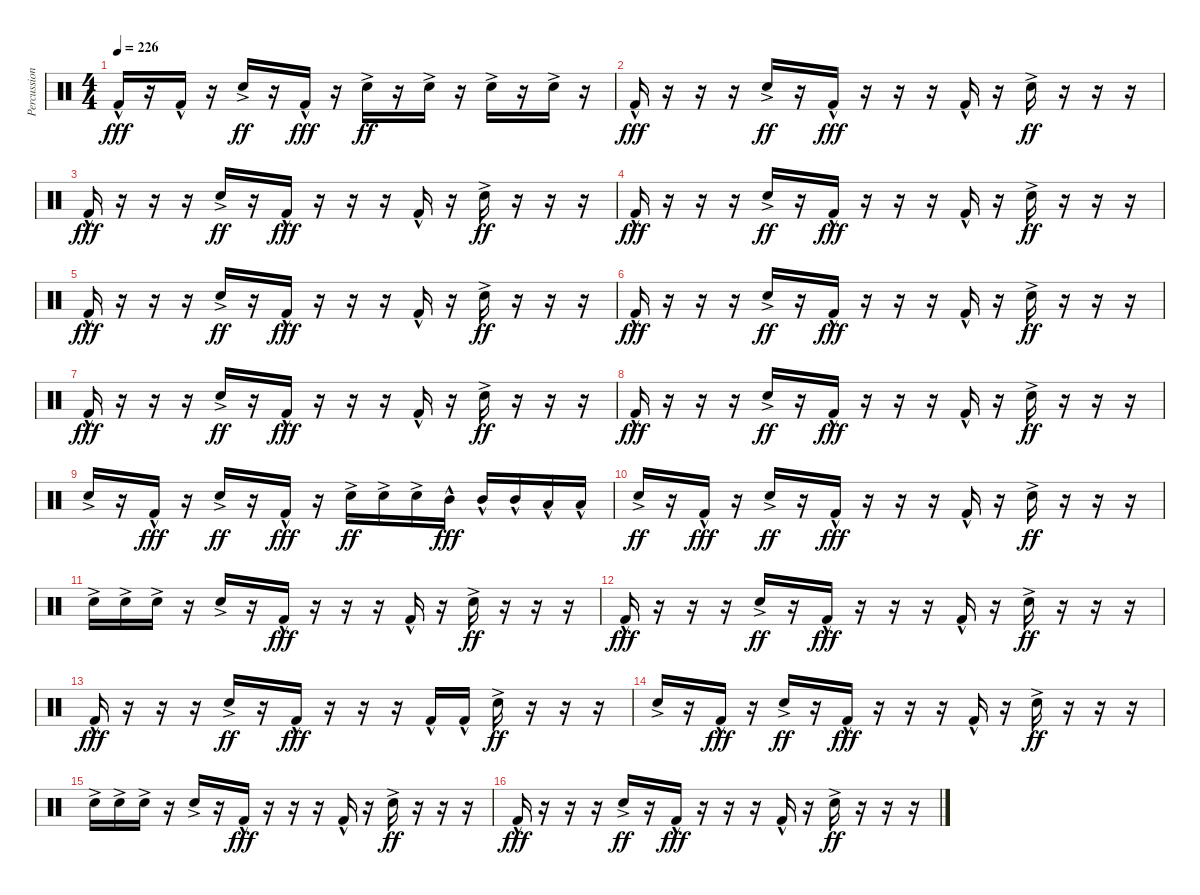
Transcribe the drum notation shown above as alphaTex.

\track ("Percussion" "Percussion") {instrument percussion bank 255}
\staff {score}
\articulation defaults
\ts (4 4)
\tempo 226
\clef neutral
\ks c "Kick (hit) 2"{hac}.16{dy fff}
r.16 "Kick (hit) 2"{hac}.16 r.16 "Snare (hit) 2"{ac}.16{dy ff} r.16 "Kick (hit) 2"{hac}.16{dy fff} r.16 "Snare (hit) 2"{ac}.16{dy ff} r.16 "Snare (hit) 2"{ac}.16 r.16 "Snare (hit) 2"{ac}.16 r.16 "Snare (hit) 2"{ac}.16 r.16 |
"Kick (hit) 2"{hac}.16{dy fff} r.16 r.16 r.16 "Snare (hit) 2"{ac}.16{dy ff} r.16 "Kick (hit) 2"{hac}.16{dy fff} r.16 r.16 r.16 "Kick (hit) 2"{hac}.16 r.16 "Snare (hit) 2"{ac}.16{dy ff} r.16 r.16 r.16 |
"Kick (hit) 2"{hac}.16{dy fff} r.16 r.16 r.16 "Snare (hit) 2"{ac}.16{dy ff} r.16 "Kick (hit) 2"{hac}.16{dy fff} r.16 r.16 r.16 "Kick (hit) 2"{hac}.16 r.16 "Snare (hit) 2"{ac}.16{dy ff} r.16 r.16 r.16 |
"Kick (hit) 2"{hac}.16{dy fff} r.16 r.16 r.16 "Snare (hit) 2"{ac}.16{dy ff} r.16 "Kick (hit) 2"{hac}.16{dy fff} r.16 r.16 r.16 "Kick (hit) 2"{hac}.16 r.16 "Snare (hit) 2"{ac}.16{dy ff} r.16 r.16 r.16 |
"Kick (hit) 2"{hac}.16{dy fff} r.16 r.16 r.16 "Snare (hit) 2"{ac}.16{dy ff} r.16 "Kick (hit) 2"{hac}.16{dy fff} r.16 r.16 r.16 "Kick (hit) 2"{hac}.16 r.16 "Snare (hit) 2"{ac}.16{dy ff} r.16 r.16 r.16 |
"Kick (hit) 2"{hac}.16{dy fff} r.16 r.16 r.16 "Snare (hit) 2"{ac}.16{dy ff} r.16 "Kick (hit) 2"{hac}.16{dy fff} r.16 r.16 r.16 "Kick (hit) 2"{hac}.16 r.16 "Snare (hit) 2"{ac}.16{dy ff} r.16 r.16 r.16 |
"Kick (hit) 2"{hac}.16{dy fff} r.16 r.16 r.16 "Snare (hit) 2"{ac}.16{dy ff} r.16 "Kick (hit) 2"{hac}.16{dy fff} r.16 r.16 r.16 "Kick (hit) 2"{hac}.16 r.16 "Snare (hit) 2"{ac}.16{dy ff} r.16 r.16 r.16 |
"Kick (hit) 2"{hac}.16{dy fff} r.16 r.16 r.16 "Snare (hit) 2"{ac}.16{dy ff} r.16 "Kick (hit) 2"{hac}.16{dy fff} r.16 r.16 r.16 "Kick (hit) 2"{hac}.16 r.16 "Snare (hit) 2"{ac}.16{dy ff} r.16 r.16 r.16 |
"Snare (hit) 2"{ac}.16 r.16 "Kick (hit) 2"{hac}.16{dy fff} r.16 "Snare (hit) 2"{ac}.16{dy ff} r.16 "Kick (hit) 2"{hac}.16{dy fff} r.16 "Snare (hit) 2"{ac}.16{dy ff} "Snare (hit) 2"{ac}.16 "Snare (hit) 2"{ac}.16 "Mid Tom (hit)"{hac}.16{dy fff} "Mid Tom (hit)"{hac}.16 "Mid Tom (hit)"{hac}.16 "Low Tom (hit)"{hac}.16 "Low Tom (hit)"{hac}.16 |
"Snare (hit) 2"{ac}.16{dy ff} r.16 "Kick (hit) 2"{hac}.16{dy fff} r.16 "Snare (hit) 2"{ac}.16{dy ff} r.16 "Kick (hit) 2"{hac}.16{dy fff} r.16 r.16 r.16 "Kick (hit) 2"{hac}.16 r.16 "Snare (hit) 2"{ac}.16{dy ff} r.16 r.16 r.16 |
"Snare (hit) 2"{ac}.16 "Snare (hit) 2"{ac}.16 "Snare (hit) 2"{ac}.16 r.16 "Snare (hit) 2"{ac}.16 r.16 "Kick (hit) 2"{hac}.16{dy fff} r.16 r.16 r.16 "Kick (hit) 2"{hac}.16 r.16 "Snare (hit) 2"{ac}.16{dy ff} r.16 r.16 r.16 |
"Kick (hit) 2"{hac}.16{dy fff} r.16 r.16 r.16 "Snare (hit) 2"{ac}.16{dy ff} r.16 "Kick (hit) 2"{hac}.16{dy fff} r.16 r.16 r.16 "Kick (hit) 2"{hac}.16 r.16 "Snare (hit) 2"{ac}.16{dy ff} r.16 r.16 r.16 |
"Kick (hit) 2"{hac}.16{dy fff} r.16 r.16 r.16 "Snare (hit) 2"{ac}.16{dy ff} r.16 "Kick (hit) 2"{hac}.16{dy fff} r.16 r.16 r.16 "Kick (hit) 2"{hac}.16 "Kick (hit) 2"{hac}.16 "Snare (hit) 2"{ac}.16{dy ff} r.16 r.16 r.16 |
"Snare (hit) 2"{ac}.16 r.16 "Kick (hit) 2"{hac}.16{dy fff} r.16 "Snare (hit) 2"{ac}.16{dy ff} r.16 "Kick (hit) 2"{hac}.16{dy fff} r.16 r.16 r.16 "Kick (hit) 2"{hac}.16 r.16 "Snare (hit) 2"{ac}.16{dy ff} r.16 r.16 r.16 |
"Snare (hit) 2"{ac}.16 "Snare (hit) 2"{ac}.16 "Snare (hit) 2"{ac}.16 r.16 "Snare (hit) 2"{ac}.16 r.16 "Kick (hit) 2"{hac}.16{dy fff} r.16 r.16 r.16 "Kick (hit) 2"{hac}.16 r.16 "Snare (hit) 2"{ac}.16{dy ff} r.16 r.16 r.16 |
"Kick (hit) 2"{hac}.16{dy fff} r.16 r.16 r.16 "Snare (hit) 2"{ac}.16{dy ff} r.16 "Kick (hit) 2"{hac}.16{dy fff} r.16 r.16 r.16 "Kick (hit) 2"{hac}.16 r.16 "Snare (hit) 2"{ac}.16{dy ff} r.16 r.16 r.16
